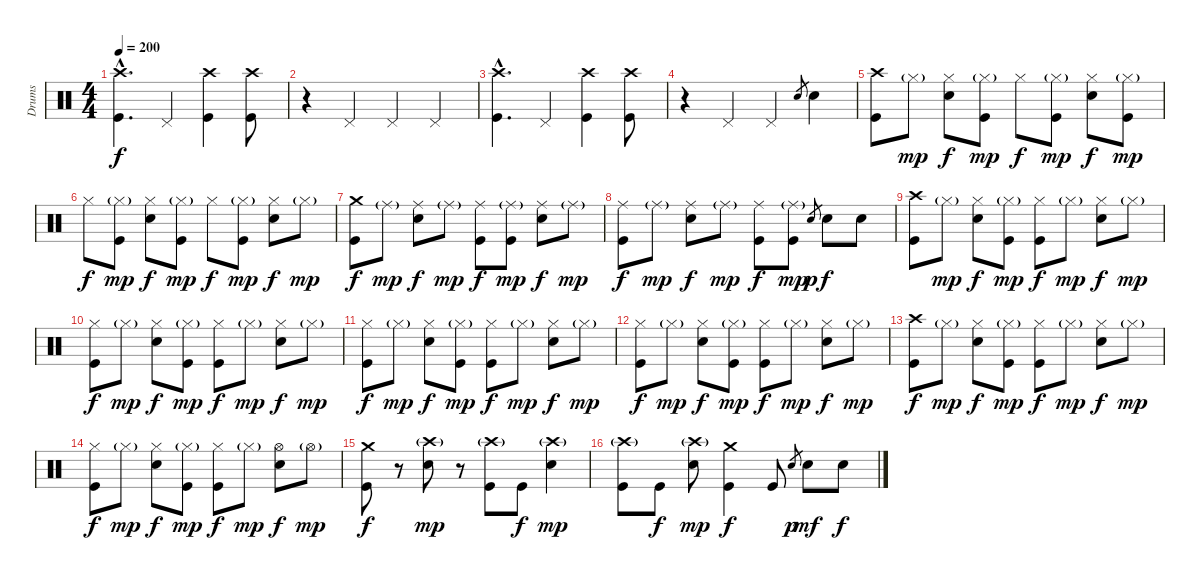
\track ("Drums" "Drums") {instrument percussion}
\staff {score}
\articulation defaults
\ts (4 4)
\tempo 200
\clef neutral
\ks c
("Crash high (hit)"{hac} "Kick (hit)"{hac}).4{d dy f} "Pedal Hi-Hat (hit)".4 ("Crash high (hit)" "Kick (hit)").4 ("Crash high (hit)" "Kick (hit)").8 |
r.4 "Pedal Hi-Hat (hit)".4 "Pedal Hi-Hat (hit)".4 "Pedal Hi-Hat (hit)".4 |
("Crash high (hit)"{hac} "Kick (hit)"{hac}).4{d} "Pedal Hi-Hat (hit)".4 ("Crash high (hit)" "Kick (hit)").4 ("Crash high (hit)" "Kick (hit)").8 |
r.4 "Pedal Hi-Hat (hit)".4 "Pedal Hi-Hat (hit)".4 "Electric Snare (hit)".8{gr} "Electric Snare (hit)".4 |
("Crash high (hit)" "Kick (hit)").8 "Hi-Hat (closed)"{g}.8{dy mp} ("Hi-Hat (closed)" "Electric Snare (hit)").8{dy f} ("Hi-Hat (closed)"{g} "Kick (hit)").8{dy mp} "Hi-Hat (closed)".8{dy f} ("Hi-Hat (closed)"{g} "Kick (hit)").8{dy mp} ("Hi-Hat (closed)" "Electric Snare (hit)").8{dy f} ("Hi-Hat (closed)"{g} "Kick (hit)").8{dy mp} |
"Hi-Hat (closed)".8{dy f} ("Hi-Hat (closed)"{g} "Kick (hit)").8{dy mp} ("Hi-Hat (closed)" "Electric Snare (hit)").8{dy f} ("Hi-Hat (closed)"{g} "Kick (hit)").8{dy mp} "Hi-Hat (closed)".8{dy f} ("Hi-Hat (closed)"{g} "Kick (hit)").8{dy mp} ("Hi-Hat (closed)" "Electric Snare (hit)").8{dy f} "Hi-Hat (closed)"{g}.8{dy mp} |
("Crash medium (hit)" "Kick (hit)").8{dy f} "Ride (middle)"{g}.8{dy mp} ("Ride (middle)" "Electric Snare (hit)").8{dy f} "Ride (middle)"{g}.8{dy mp} ("Ride (middle)" "Kick (hit)").8{dy f} ("Ride (middle)"{g} "Kick (hit)").8{dy mp} ("Ride (middle)" "Electric Snare (hit)").8{dy f} "Ride (middle)"{g}.8{dy mp} |
("Ride (middle)" "Kick (hit)").8{dy f} "Ride (middle)"{g}.8{dy mp} ("Ride (middle)" "Electric Snare (hit)").8{dy f} "Ride (middle)"{g}.8{dy mp} ("Ride (middle)" "Kick (hit)").8{dy f} ("Ride (middle)"{g} "Kick (hit)").8{dy mp} "Electric Snare (hit)".8{gr dy p} "Electric Snare (hit)".8{dy f} "Electric Snare (hit)".8 |
("Crash high (hit)" "Kick (hit)").8 "Hi-Hat (closed)"{g}.8{dy mp} ("Hi-Hat (closed)" "Electric Snare (hit)").8{dy f} ("Hi-Hat (closed)"{g} "Kick (hit)").8{dy mp} ("Hi-Hat (closed)" "Kick (hit)").8{dy f} "Hi-Hat (closed)"{g}.8{dy mp} ("Hi-Hat (closed)" "Electric Snare (hit)").8{dy f} "Hi-Hat (closed)"{g}.8{dy mp} |
("Hi-Hat (closed)" "Kick (hit)").8{dy f} "Hi-Hat (closed)"{g}.8{dy mp} ("Hi-Hat (closed)" "Electric Snare (hit)").8{dy f} ("Hi-Hat (closed)"{g} "Kick (hit)").8{dy mp} ("Hi-Hat (closed)" "Kick (hit)").8{dy f} "Hi-Hat (closed)"{g}.8{dy mp} ("Hi-Hat (closed)" "Electric Snare (hit)").8{dy f} "Hi-Hat (closed)"{g}.8{dy mp} |
("Hi-Hat (closed)" "Kick (hit)").8{dy f} "Hi-Hat (closed)"{g}.8{dy mp} ("Hi-Hat (closed)" "Electric Snare (hit)").8{dy f} ("Hi-Hat (closed)"{g} "Kick (hit)").8{dy mp} ("Hi-Hat (closed)" "Kick (hit)").8{dy f} "Hi-Hat (closed)"{g}.8{dy mp} ("Hi-Hat (closed)" "Electric Snare (hit)").8{dy f} "Hi-Hat (closed)"{g}.8{dy mp} |
("Hi-Hat (closed)" "Kick (hit)").8{dy f} "Hi-Hat (closed)"{g}.8{dy mp} ("Hi-Hat (closed)" "Electric Snare (hit)").8{dy f} ("Hi-Hat (closed)"{g} "Kick (hit)").8{dy mp} ("Hi-Hat (closed)" "Kick (hit)").8{dy f} "Hi-Hat (closed)"{g}.8{dy mp} ("Hi-Hat (closed)" "Electric Snare (hit)").8{dy f} "Hi-Hat (closed)"{g}.8{dy mp} |
("Crash high (hit)" "Kick (hit)").8{dy f} "Hi-Hat (closed)"{g}.8{dy mp} ("Hi-Hat (closed)" "Electric Snare (hit)").8{dy f} ("Hi-Hat (closed)"{g} "Kick (hit)").8{dy mp} ("Hi-Hat (closed)" "Kick (hit)").8{dy f} "Hi-Hat (closed)"{g}.8{dy mp} ("Hi-Hat (closed)" "Electric Snare (hit)").8{dy f} "Hi-Hat (closed)"{g}.8{dy mp} |
("Hi-Hat (closed)" "Kick (hit)").8{dy f} "Hi-Hat (closed)"{g}.8{dy mp} ("Hi-Hat (closed)" "Electric Snare (hit)").8{dy f} ("Hi-Hat (closed)"{g} "Kick (hit)").8{dy mp} ("Hi-Hat (closed)" "Kick (hit)").8{dy f} "Hi-Hat (closed)"{g}.8{dy mp} ("Hi-Hat (open)" "Electric Snare (hit)").8{dy f} "Hi-Hat (open)"{g}.8{dy mp} |
("Crash medium (hit)" "Kick (hit)").8{dy f} r.8 ("Crash high (hit)"{g} "Electric Snare (hit)").8{dy mp} r.8 ("Crash high (hit)"{g} "Kick (hit)").8 "Kick (hit)".8{dy f} ("Crash high (hit)"{g} "Electric Snare (hit)").4{dy mp} |
("Crash high (hit)"{g} "Kick (hit)").8 "Kick (hit)".8{dy f} ("Crash high (hit)"{g} "Electric Snare (hit)").8{dy mp} ("Crash medium (hit)" "Kick (hit)").4{dy f} "Kick (hit)".8 "Electric Snare (hit)".8{gr dy p} "Electric Snare (hit)".8{dy mf} "Electric Snare (hit)".8{dy f}
